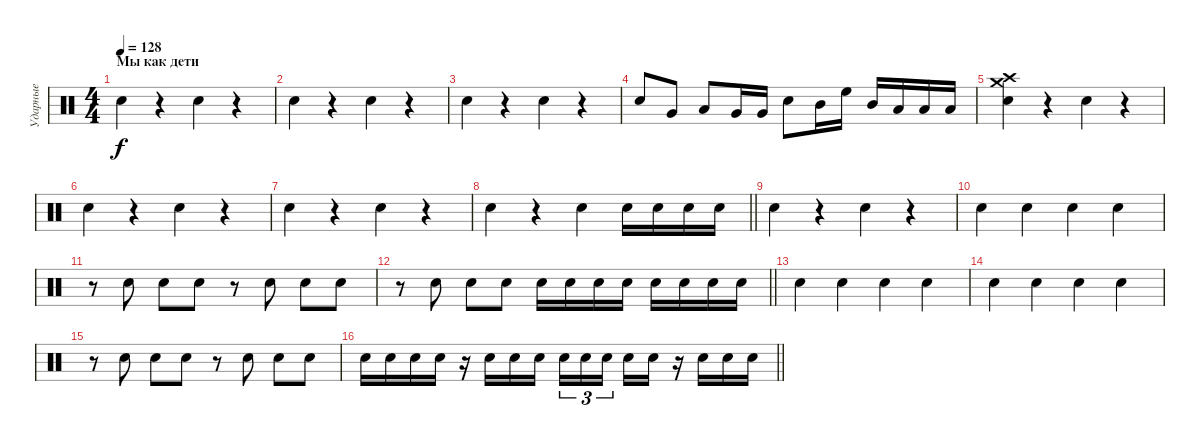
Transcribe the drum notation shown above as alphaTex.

\track ("Ударные" "Ударные") {instrument percussion}
\staff {score}
\articulation defaults
\ts (4 4)
\section ("" "Мы как дети")
\tempo 128
\clef neutral
\ks c "Electric Snare (hit)".4{dy f}
r.4 "Electric Snare (hit)".4 r.4 |
"Electric Snare (hit)".4 r.4 "Electric Snare (hit)".4 r.4 |
"Electric Snare (hit)".4 r.4 "Electric Snare (hit)".4 r.4 |
"Electric Snare (hit)".8 "Very Low Tom (hit)".8 "Low Floor Tom (hit)".8 "Very Low Tom (hit)".16 "Very Low Tom (hit)".16 "Electric Snare (hit)".8 "Mid Tom (hit)".16 "High Floor Tom (hit)".16 "Mid Tom (hit)".16 "Low Tom (hit)".16 "Low Tom (hit)".16 "Low Floor Tom (hit)".16 |
("Crash medium (hit)" "Crash high (hit)" "Electric Snare (hit)").4 r.4 "Electric Snare (hit)".4 r.4 |
"Electric Snare (hit)".4 r.4 "Electric Snare (hit)".4 r.4 |
"Electric Snare (hit)".4 r.4 "Electric Snare (hit)".4 r.4 |
\barLineRight lightlight "Electric Snare (hit)".4
r.4 "Electric Snare (hit)".4 "Electric Snare (hit)".16 "Electric Snare (hit)".16 "Electric Snare (hit)".16 "Electric Snare (hit)".16 |
"Electric Snare (hit)".4 r.4 "Electric Snare (hit)".4 r.4 |
"Electric Snare (hit)".4 "Electric Snare (hit)".4 "Electric Snare (hit)".4 "Electric Snare (hit)".4 |
r.8 "Electric Snare (hit)".8 "Electric Snare (hit)".8 "Electric Snare (hit)".8 r.8 "Electric Snare (hit)".8 "Electric Snare (hit)".8 "Electric Snare (hit)".8 |
\barLineRight lightlight
r.8 "Electric Snare (hit)".8 "Electric Snare (hit)".8 "Electric Snare (hit)".8 "Electric Snare (hit)".16 "Electric Snare (hit)".16 "Electric Snare (hit)".16 "Electric Snare (hit)".16 "Electric Snare (hit)".16 "Electric Snare (hit)".16 "Electric Snare (hit)".16 "Electric Snare (hit)".16 |
"Electric Snare (hit)".4 "Electric Snare (hit)".4 "Electric Snare (hit)".4 "Electric Snare (hit)".4 |
"Electric Snare (hit)".4 "Electric Snare (hit)".4 "Electric Snare (hit)".4 "Electric Snare (hit)".4 |
r.8 "Electric Snare (hit)".8 "Electric Snare (hit)".8 "Electric Snare (hit)".8 r.8 "Electric Snare (hit)".8 "Electric Snare (hit)".8 "Electric Snare (hit)".8 |
\barLineRight lightlight "Electric Snare (hit)".16 "Electric Snare (hit)".16 "Electric Snare (hit)".16 "Electric Snare (hit)".16
r.16 "Electric Snare (hit)".16 "Electric Snare (hit)".16 "Electric Snare (hit)".16 "Electric Snare (hit)".16{tu (3 2)} "Electric Snare (hit)".16{tu (3 2)} "Electric Snare (hit)".16{tu (3 2) beam splitsecondary} "Electric Snare (hit)".16 "Electric Snare (hit)".16 r.16 "Electric Snare (hit)".16 "Electric Snare (hit)".16 "Electric Snare (hit)".16
